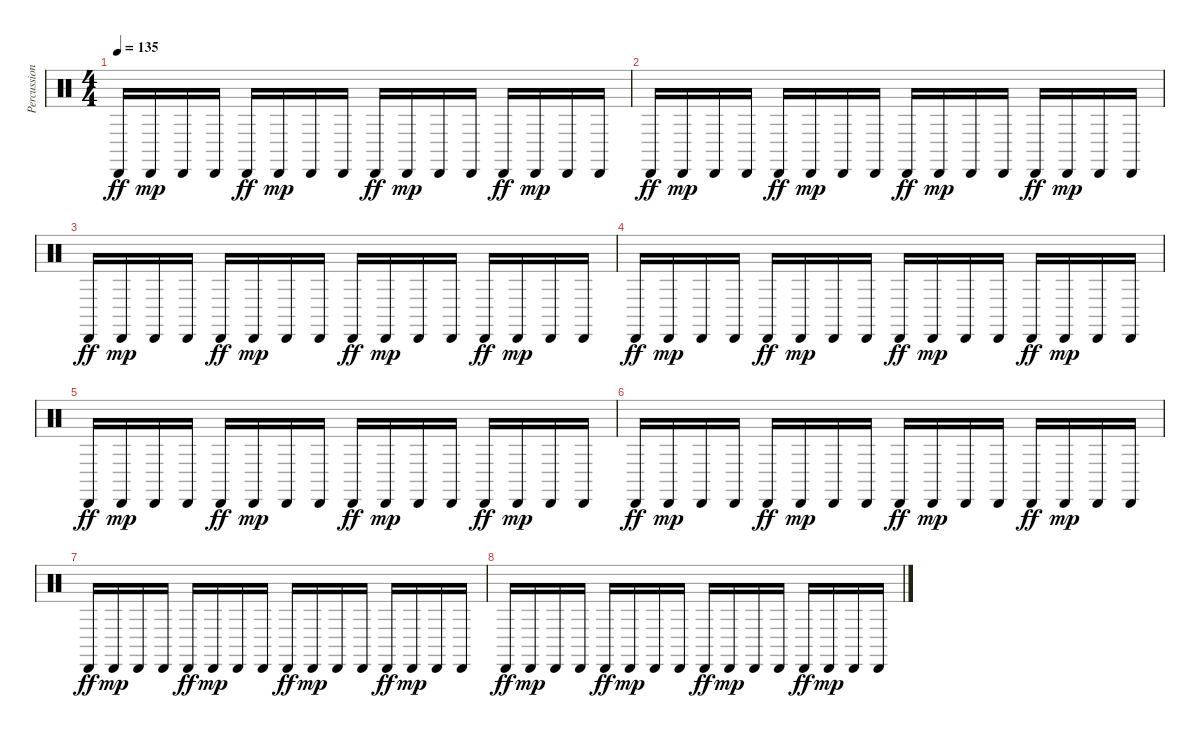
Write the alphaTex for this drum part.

\track ("Percussion2" "Percussion") {instrument percussion}
\staff {score}
\articulation defaults
\ts (4 4)
\tempo 135
\clef neutral
\ks c "Cabasa (hit)".16{dy ff} "Cabasa (hit)".16{dy mp} "Cabasa (hit)".16 "Cabasa (hit)".16 "Cabasa (hit)".16{dy ff} "Cabasa (hit)".16{dy mp} "Cabasa (hit)".16 "Cabasa (hit)".16 "Cabasa (hit)".16{dy ff} "Cabasa (hit)".16{dy mp} "Cabasa (hit)".16 "Cabasa (hit)".16 "Cabasa (hit)".16{dy ff} "Cabasa (hit)".16{dy mp} "Cabasa (hit)".16 "Cabasa (hit)".16
|
"Cabasa (hit)".16{dy ff} "Cabasa (hit)".16{dy mp} "Cabasa (hit)".16 "Cabasa (hit)".16 "Cabasa (hit)".16{dy ff} "Cabasa (hit)".16{dy mp} "Cabasa (hit)".16 "Cabasa (hit)".16 "Cabasa (hit)".16{dy ff} "Cabasa (hit)".16{dy mp} "Cabasa (hit)".16 "Cabasa (hit)".16 "Cabasa (hit)".16{dy ff} "Cabasa (hit)".16{dy mp} "Cabasa (hit)".16 "Cabasa (hit)".16 |
"Cabasa (hit)".16{dy ff} "Cabasa (hit)".16{dy mp} "Cabasa (hit)".16 "Cabasa (hit)".16 "Cabasa (hit)".16{dy ff} "Cabasa (hit)".16{dy mp} "Cabasa (hit)".16 "Cabasa (hit)".16 "Cabasa (hit)".16{dy ff} "Cabasa (hit)".16{dy mp} "Cabasa (hit)".16 "Cabasa (hit)".16 "Cabasa (hit)".16{dy ff} "Cabasa (hit)".16{dy mp} "Cabasa (hit)".16 "Cabasa (hit)".16 |
"Cabasa (hit)".16{dy ff} "Cabasa (hit)".16{dy mp} "Cabasa (hit)".16 "Cabasa (hit)".16 "Cabasa (hit)".16{dy ff} "Cabasa (hit)".16{dy mp} "Cabasa (hit)".16 "Cabasa (hit)".16 "Cabasa (hit)".16{dy ff} "Cabasa (hit)".16{dy mp} "Cabasa (hit)".16 "Cabasa (hit)".16 "Cabasa (hit)".16{dy ff} "Cabasa (hit)".16{dy mp} "Cabasa (hit)".16 "Cabasa (hit)".16 |
"Cabasa (hit)".16{dy ff} "Cabasa (hit)".16{dy mp} "Cabasa (hit)".16 "Cabasa (hit)".16 "Cabasa (hit)".16{dy ff} "Cabasa (hit)".16{dy mp} "Cabasa (hit)".16 "Cabasa (hit)".16 "Cabasa (hit)".16{dy ff} "Cabasa (hit)".16{dy mp} "Cabasa (hit)".16 "Cabasa (hit)".16 "Cabasa (hit)".16{dy ff} "Cabasa (hit)".16{dy mp} "Cabasa (hit)".16 "Cabasa (hit)".16 |
"Cabasa (hit)".16{dy ff} "Cabasa (hit)".16{dy mp} "Cabasa (hit)".16 "Cabasa (hit)".16 "Cabasa (hit)".16{dy ff} "Cabasa (hit)".16{dy mp} "Cabasa (hit)".16 "Cabasa (hit)".16 "Cabasa (hit)".16{dy ff} "Cabasa (hit)".16{dy mp} "Cabasa (hit)".16 "Cabasa (hit)".16 "Cabasa (hit)".16{dy ff} "Cabasa (hit)".16{dy mp} "Cabasa (hit)".16 "Cabasa (hit)".16 |
"Cabasa (hit)".16{dy ff} "Cabasa (hit)".16{dy mp} "Cabasa (hit)".16 "Cabasa (hit)".16 "Cabasa (hit)".16{dy ff} "Cabasa (hit)".16{dy mp} "Cabasa (hit)".16 "Cabasa (hit)".16 "Cabasa (hit)".16{dy ff} "Cabasa (hit)".16{dy mp} "Cabasa (hit)".16 "Cabasa (hit)".16 "Cabasa (hit)".16{dy ff} "Cabasa (hit)".16{dy mp} "Cabasa (hit)".16 "Cabasa (hit)".16 |
"Cabasa (hit)".16{dy ff} "Cabasa (hit)".16{dy mp} "Cabasa (hit)".16 "Cabasa (hit)".16 "Cabasa (hit)".16{dy ff} "Cabasa (hit)".16{dy mp} "Cabasa (hit)".16 "Cabasa (hit)".16 "Cabasa (hit)".16{dy ff} "Cabasa (hit)".16{dy mp} "Cabasa (hit)".16 "Cabasa (hit)".16 "Cabasa (hit)".16{dy ff} "Cabasa (hit)".16{dy mp} "Cabasa (hit)".16 "Cabasa (hit)".16
